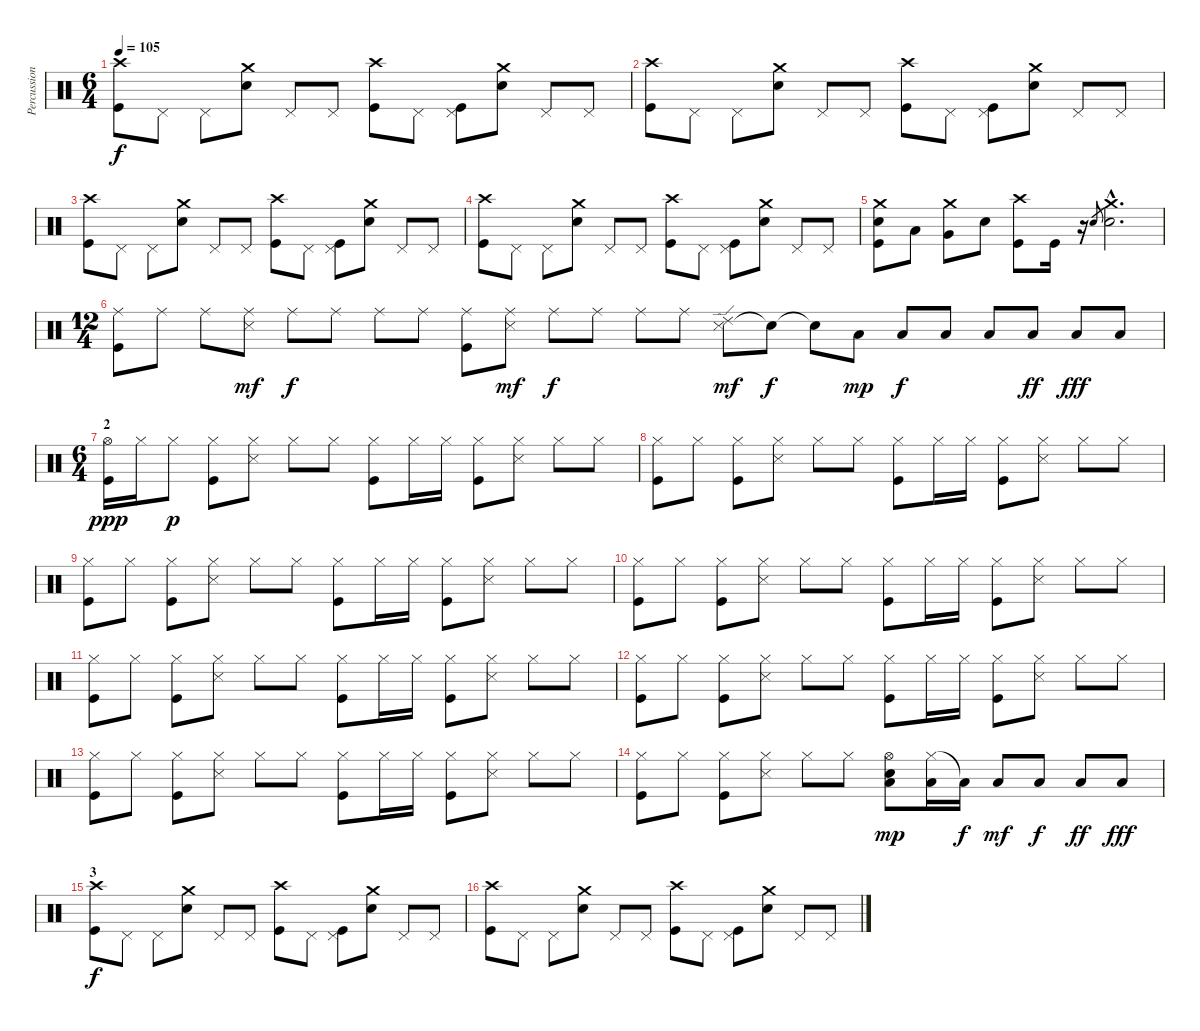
\track ("Percussions" "Percussion") {instrument percussion}
\staff {score}
\articulation defaults
\ts (6 4)
\tempo 105
\clef neutral
\ks c
("Kick (hit)" "Crash high (hit)").8{dy f} "Pedal Hi-Hat (hit)".8 "Pedal Hi-Hat (hit)".8 ("Electric Snare (hit)" "Crash medium (hit)").8 "Pedal Hi-Hat (hit)".8 "Pedal Hi-Hat (hit)".8 ("Kick (hit)" "Crash high (hit)").8 "Pedal Hi-Hat (hit)".8 ("Kick (hit)" "Pedal Hi-Hat (hit)").8 ("Electric Snare (hit)" "Crash medium (hit)").8 "Pedal Hi-Hat (hit)".8 "Pedal Hi-Hat (hit)".8 |
("Kick (hit)" "Crash high (hit)").8 "Pedal Hi-Hat (hit)".8 "Pedal Hi-Hat (hit)".8 ("Electric Snare (hit)" "Crash medium (hit)").8 "Pedal Hi-Hat (hit)".8 "Pedal Hi-Hat (hit)".8 ("Kick (hit)" "Crash high (hit)").8 "Pedal Hi-Hat (hit)".8 ("Kick (hit)" "Pedal Hi-Hat (hit)").8 ("Electric Snare (hit)" "Crash medium (hit)").8 "Pedal Hi-Hat (hit)".8 "Pedal Hi-Hat (hit)".8 |
("Kick (hit)" "Crash high (hit)").8 "Pedal Hi-Hat (hit)".8 "Pedal Hi-Hat (hit)".8 ("Electric Snare (hit)" "Crash medium (hit)").8 "Pedal Hi-Hat (hit)".8 "Pedal Hi-Hat (hit)".8 ("Kick (hit)" "Crash high (hit)").8 "Pedal Hi-Hat (hit)".8 ("Kick (hit)" "Pedal Hi-Hat (hit)").8 ("Electric Snare (hit)" "Crash medium (hit)").8 "Pedal Hi-Hat (hit)".8 "Pedal Hi-Hat (hit)".8 |
("Kick (hit)" "Crash high (hit)").8 "Pedal Hi-Hat (hit)".8 "Pedal Hi-Hat (hit)".8 ("Electric Snare (hit)" "Crash medium (hit)").8 "Pedal Hi-Hat (hit)".8 "Pedal Hi-Hat (hit)".8 ("Kick (hit)" "Crash high (hit)").8 "Pedal Hi-Hat (hit)".8 ("Kick (hit)" "Pedal Hi-Hat (hit)").8 ("Electric Snare (hit)" "Crash medium (hit)").8 "Pedal Hi-Hat (hit)".8 "Pedal Hi-Hat (hit)".8 |
("Kick (hit)" "Electric Snare (hit)" "Crash medium (hit)").8 "Low Tom (hit)".8 ("Crash medium (hit)" "Very Low Tom (hit)").8 "Electric Snare (hit)".8 ("Kick (hit)" "Crash high (hit)").8 "Kick (hit)".16 r.16 "Electric Snare (hit)".8{gr} ("Electric Snare (hit)"{hac} "Crash medium (hit)"{hac}).2{d} |
\ts (12 4)
("Kick (hit)" "Ride (middle)").8 "Ride (middle)".8 "Ride (middle)".8 ("Snare (side stick) 3" "Ride (middle)").8{dy mf} "Ride (middle)".8{dy f} "Ride (middle)".8 "Ride (middle)".8 "Ride (middle)".8 ("Kick (hit)" "Ride (middle)").8 ("Snare (side stick) 3" "Ride (middle)").8{dy mf} "Ride (middle)".8{dy f} "Ride (middle)".8 "Ride (middle)".8 "Ride (middle)".8 ("Snare (side stick) 3" "Ride (edge) 2").8{dy mf} "Snare (hit)"{t}.8{dy f} "Snare (hit)"{t}.8 "Low Tom (hit)".8{dy mp} "Low Tom (hit)".8{dy f} "Low Tom (hit)".8 "Low Tom (hit)".8 "Low Tom (hit)".8{dy ff} "Low Tom (hit)".8{dy fff} "Low Tom (hit)".8 |
\ts (6 4)
\section ("" "2")
("Kick (hit)" "Hi-Hat (open)").16{dy ppp} "Hi-Hat (closed)".16 "Hi-Hat (closed)".8{dy p} ("Kick (hit)" "Hi-Hat (closed)").8 ("Snare (side stick) 3" "Hi-Hat (closed)").8 "Hi-Hat (closed)".8 "Hi-Hat (closed)".8 ("Kick (hit)" "Hi-Hat (closed)").8 "Hi-Hat (closed)".16 "Hi-Hat (closed)".16 ("Kick (hit)" "Hi-Hat (closed)").8 ("Snare (side stick) 3" "Hi-Hat (closed)").8 "Hi-Hat (closed)".8 "Hi-Hat (closed)".8 |
("Kick (hit)" "Hi-Hat (closed)").8 "Hi-Hat (closed)".8 ("Kick (hit)" "Hi-Hat (closed)").8 ("Snare (side stick) 3" "Hi-Hat (closed)").8 "Hi-Hat (closed)".8 "Hi-Hat (closed)".8 ("Kick (hit)" "Hi-Hat (closed)").8 "Hi-Hat (closed)".16 "Hi-Hat (closed)".16 ("Kick (hit)" "Hi-Hat (closed)").8 ("Snare (side stick) 3" "Hi-Hat (closed)").8 "Hi-Hat (closed)".8 "Hi-Hat (closed)".8 |
("Kick (hit)" "Hi-Hat (closed)").8 "Hi-Hat (closed)".8 ("Kick (hit)" "Hi-Hat (closed)").8 ("Snare (side stick) 3" "Hi-Hat (closed)").8 "Hi-Hat (closed)".8 "Hi-Hat (closed)".8 ("Kick (hit)" "Hi-Hat (closed)").8 "Hi-Hat (closed)".16 "Hi-Hat (closed)".16 ("Kick (hit)" "Hi-Hat (closed)").8 ("Snare (side stick) 3" "Hi-Hat (closed)").8 "Hi-Hat (closed)".8 "Hi-Hat (closed)".8 |
("Kick (hit)" "Hi-Hat (closed)").8 "Hi-Hat (closed)".8 ("Kick (hit)" "Hi-Hat (closed)").8 ("Snare (side stick) 3" "Hi-Hat (closed)").8 "Hi-Hat (closed)".8 "Hi-Hat (closed)".8 ("Kick (hit)" "Hi-Hat (closed)").8 "Hi-Hat (closed)".16 "Hi-Hat (closed)".16 ("Kick (hit)" "Hi-Hat (closed)").8 ("Snare (side stick) 3" "Hi-Hat (closed)").8 "Hi-Hat (closed)".8 "Hi-Hat (closed)".8 |
("Kick (hit)" "Hi-Hat (closed)").8 "Hi-Hat (closed)".8 ("Kick (hit)" "Hi-Hat (closed)").8 ("Snare (side stick) 3" "Hi-Hat (closed)").8 "Hi-Hat (closed)".8 "Hi-Hat (closed)".8 ("Kick (hit)" "Hi-Hat (closed)").8 "Hi-Hat (closed)".16 "Hi-Hat (closed)".16 ("Kick (hit)" "Hi-Hat (closed)").8 ("Snare (side stick) 3" "Hi-Hat (closed)").8 "Hi-Hat (closed)".8 "Hi-Hat (closed)".8 |
("Kick (hit)" "Hi-Hat (closed)").8 "Hi-Hat (closed)".8 ("Kick (hit)" "Hi-Hat (closed)").8 ("Snare (side stick) 3" "Hi-Hat (closed)").8 "Hi-Hat (closed)".8 "Hi-Hat (closed)".8 ("Kick (hit)" "Hi-Hat (closed)").8 "Hi-Hat (closed)".16 "Hi-Hat (closed)".16 ("Kick (hit)" "Hi-Hat (closed)").8 ("Snare (side stick) 3" "Hi-Hat (closed)").8 "Hi-Hat (closed)".8 "Hi-Hat (closed)".8 |
("Kick (hit)" "Hi-Hat (closed)").8 "Hi-Hat (closed)".8 ("Kick (hit)" "Hi-Hat (closed)").8 ("Snare (side stick) 3" "Hi-Hat (closed)").8 "Hi-Hat (closed)".8 "Hi-Hat (closed)".8 ("Kick (hit)" "Hi-Hat (closed)").8 "Hi-Hat (closed)".16 "Hi-Hat (closed)".16 ("Kick (hit)" "Hi-Hat (closed)").8 ("Snare (side stick) 3" "Hi-Hat (closed)").8 "Hi-Hat (closed)".8 "Hi-Hat (closed)".8 |
("Kick (hit)" "Hi-Hat (closed)").8 "Hi-Hat (closed)".8 ("Kick (hit)" "Hi-Hat (closed)").8 ("Snare (side stick) 3" "Hi-Hat (closed)").8 "Hi-Hat (closed)".8 "Hi-Hat (closed)".8 ("Hi-Hat (open)" "Electric Snare (hit)" "Low Tom (hit)").8{dy mp} ("Hi-Hat (closed)" "Low Tom (hit)").16 "Low Tom (hit)"{t}.16{dy f} "Low Tom (hit)".8{dy mf} "Low Tom (hit)".8{dy f} "Low Tom (hit)".8{dy ff} "Low Tom (hit)".8{dy fff} |
\section ("" "3")
("Kick (hit)" "Crash high (hit)").8{dy f} "Pedal Hi-Hat (hit)".8 "Pedal Hi-Hat (hit)".8 ("Electric Snare (hit)" "Crash medium (hit)").8 "Pedal Hi-Hat (hit)".8 "Pedal Hi-Hat (hit)".8 ("Kick (hit)" "Crash high (hit)").8 "Pedal Hi-Hat (hit)".8 ("Kick (hit)" "Pedal Hi-Hat (hit)").8 ("Electric Snare (hit)" "Crash medium (hit)").8 "Pedal Hi-Hat (hit)".8 "Pedal Hi-Hat (hit)".8 |
("Kick (hit)" "Crash high (hit)").8 "Pedal Hi-Hat (hit)".8 "Pedal Hi-Hat (hit)".8 ("Electric Snare (hit)" "Crash medium (hit)").8 "Pedal Hi-Hat (hit)".8 "Pedal Hi-Hat (hit)".8 ("Kick (hit)" "Crash high (hit)").8 "Pedal Hi-Hat (hit)".8 ("Kick (hit)" "Pedal Hi-Hat (hit)").8 ("Electric Snare (hit)" "Crash medium (hit)").8 "Pedal Hi-Hat (hit)".8 "Pedal Hi-Hat (hit)".8
